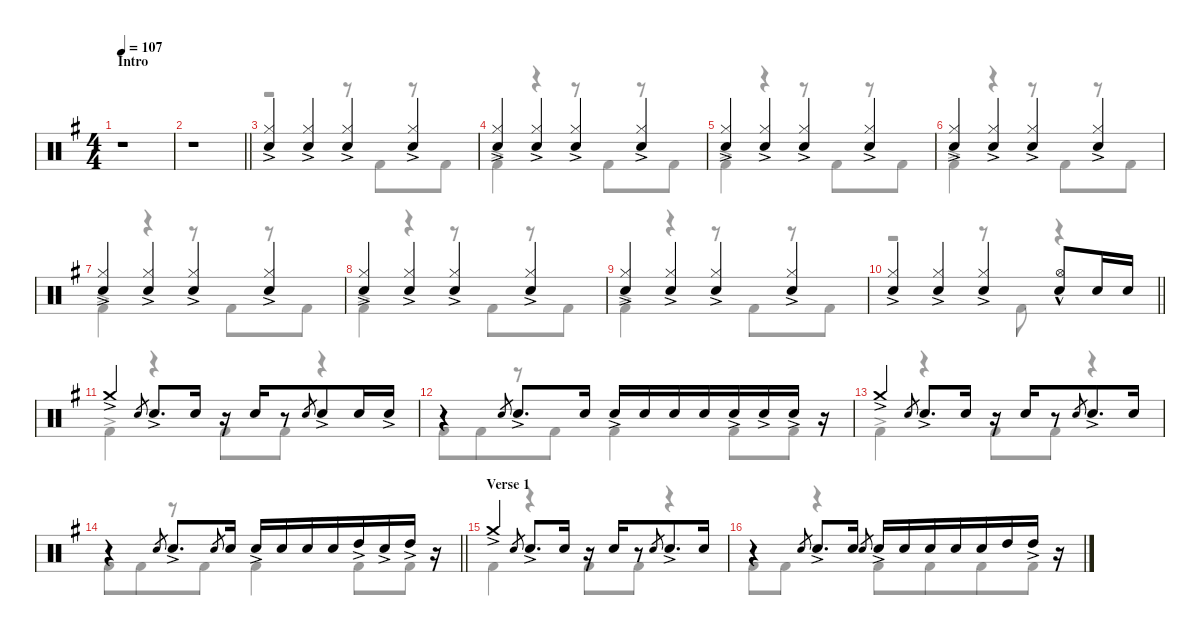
\defaultSystemsLayout 4
\hideDynamics
\bracketExtendMode nobrackets
\singleTrackTrackNamePolicy hidden
\multiTrackTrackNamePolicy hidden
\firstSystemTrackNameMode fullname
\firstSystemTrackNameOrientation horizontal
\otherSystemsTrackNameOrientation horizontal
\track ("Drums: Mitch Mitchell" "drm.") {defaultSystemsLayout 4 instrument percussion}
\staff {score}
\articulation defaults
\voice
\ts (4 4)
\beaming (8 4 4)
\section ("" "Intro")
\tempo 107
\clef neutral
\ks g
r.1{dy mf beam Down} |
\barLineRight lightlight
r.1{beam Down} |
("Hi-Hat (closed)"{ac acc forcenatural} "Snare (hit) 2"{ac acc forcenatural}).4{beam Up} ("Hi-Hat (closed)"{ac acc forcenatural} "Snare (hit) 2"{ac acc forcenatural}).4{beam Up} ("Hi-Hat (closed)"{ac acc forcenatural} "Snare (hit) 2"{ac acc forcenatural}).4{beam Up} ("Hi-Hat (closed)"{ac acc forcenatural} "Snare (hit) 2"{ac acc forcenatural}).4{beam Up} |
("Hi-Hat (closed)"{ac acc forcenatural} "Snare (hit) 2"{ac acc forcenatural}).4{beam Up} ("Hi-Hat (closed)"{ac acc forcenatural} "Snare (hit) 2"{ac acc forcenatural}).4{beam Up} ("Hi-Hat (closed)"{ac acc forcenatural} "Snare (hit) 2"{ac acc forcenatural}).4{beam Up} ("Hi-Hat (closed)"{ac acc forcenatural} "Snare (hit) 2"{ac acc forcenatural}).4{beam Up} |
("Hi-Hat (closed)"{ac acc forcenatural} "Snare (hit) 2"{ac acc forcenatural}).4{beam Up} ("Hi-Hat (closed)"{ac acc forcenatural} "Snare (hit) 2"{ac acc forcenatural}).4{beam Up} ("Hi-Hat (closed)"{ac acc forcenatural} "Snare (hit) 2"{ac acc forcenatural}).4{beam Up} ("Hi-Hat (closed)"{ac acc forcenatural} "Snare (hit) 2"{ac acc forcenatural}).4{beam Up} |
("Hi-Hat (closed)"{ac acc forcenatural} "Snare (hit) 2"{ac acc forcenatural}).4{beam Up} ("Hi-Hat (closed)"{ac acc forcenatural} "Snare (hit) 2"{ac acc forcenatural}).4{beam Up} ("Hi-Hat (closed)"{ac acc forcenatural} "Snare (hit) 2"{ac acc forcenatural}).4{beam Up} ("Hi-Hat (closed)"{ac acc forcenatural} "Snare (hit) 2"{ac acc forcenatural}).4{beam Up} |
("Hi-Hat (closed)"{ac acc forcenatural} "Snare (hit) 2"{ac acc forcenatural}).4{beam Up} ("Hi-Hat (closed)"{ac acc forcenatural} "Snare (hit) 2"{ac acc forcenatural}).4{beam Up} ("Hi-Hat (closed)"{ac acc forcenatural} "Snare (hit) 2"{ac acc forcenatural}).4{beam Up} ("Hi-Hat (closed)"{ac acc forcenatural} "Snare (hit) 2"{ac acc forcenatural}).4{beam Up} |
("Hi-Hat (closed)"{ac acc forcenatural} "Snare (hit) 2"{ac acc forcenatural}).4{beam Up} ("Hi-Hat (closed)"{ac acc forcenatural} "Snare (hit) 2"{ac acc forcenatural}).4{beam Up} ("Hi-Hat (closed)"{ac acc forcenatural} "Snare (hit) 2"{ac acc forcenatural}).4{beam Up} ("Hi-Hat (closed)"{ac acc forcenatural} "Snare (hit) 2"{ac acc forcenatural}).4{beam Up} |
("Hi-Hat (closed)"{ac acc forcenatural} "Snare (hit) 2"{ac acc forcenatural}).4{beam Up} ("Hi-Hat (closed)"{ac acc forcenatural} "Snare (hit) 2"{ac acc forcenatural}).4{beam Up} ("Hi-Hat (closed)"{ac acc forcenatural} "Snare (hit) 2"{ac acc forcenatural}).4{beam Up} ("Hi-Hat (closed)"{ac acc forcenatural} "Snare (hit) 2"{ac acc forcenatural}).4{beam Up} |
\barLineRight lightlight
("Hi-Hat (closed)"{ac acc forcenatural} "Snare (hit) 2"{ac acc forcenatural}).4{beam Up} ("Hi-Hat (closed)"{ac acc forcenatural} "Snare (hit) 2"{ac acc forcenatural}).4{beam Up} ("Hi-Hat (closed)"{ac acc forcenatural} "Snare (hit) 2"{ac acc forcenatural}).4{beam Up} ("Hi-Hat (open)"{hac acc forcenatural} "Snare (hit) 2"{acc forcenatural}).8{beam Up} "Snare (hit) 2"{acc forcenatural}.16{beam Up} "Snare (hit) 2"{acc forcenatural}.16{beam Up} |
"Crash medium (hit)"{ac acc forcenatural}.4{beam Up} "Snare (hit) 2"{acc forcenatural}.8{gr dy mp beam Up} "Snare (hit) 2"{ac acc forcenatural}.8{d dy mf beam Up} "Snare (hit) 2"{acc forcenatural}.16{beam Up} r.16{beam Up} "Snare (hit) 2"{acc forcenatural}.16{beam Up} r.8{beam Up} "Snare (hit) 2"{acc forcenatural}.8{gr dy mp beam Up} "Snare (hit) 2"{ac acc forcenatural}.8{dy mf beam Up} "Snare (hit) 2"{acc forcenatural}.16{beam Up} "Snare (hit) 2"{ac acc forcenatural}.16{beam Up} |
r.4{beam Up} "Snare (hit) 2"{acc forcenatural}.8{gr dy mp beam Up} "Snare (hit) 2"{ac acc forcenatural}.8{d dy mf beam Up} "Snare (hit) 2"{acc forcenatural}.16{beam Up} "Snare (hit) 2"{ac acc forcenatural}.16{beam Up} "Snare (hit) 2"{acc forcenatural}.16{beam Up} "Snare (hit) 2"{acc forcenatural}.16{beam Up} "Snare (hit) 2"{acc forcenatural}.16{beam Up} "Snare (hit) 2"{ac acc forcenatural}.16{beam Up} "Snare (hit) 2"{ac acc forcenatural}.16{beam Up} "Snare (hit) 2"{ac acc forcenatural}.16{beam Up} r.16{beam Up} |
"Crash medium (hit)"{ac acc forcenatural}.4{beam Up} "Snare (hit) 2"{acc forcenatural}.8{gr beam Up} "Snare (hit) 2"{ac acc forcenatural}.8{d beam Up} "Snare (hit) 2"{acc forcenatural}.16{beam Up} r.16{beam Up} "Snare (hit) 2"{acc forcenatural}.16{beam Up} r.8{beam Up} "Snare (hit) 2"{acc forcenatural}.8{gr beam Up} "Snare (hit) 2"{ac acc forcenatural}.8{d beam Up} "Snare (hit) 2"{acc forcenatural}.16{beam Up} |
\barLineRight lightlight
r.4{beam Up} "Snare (hit) 2"{acc forcenatural}.8{gr beam Up} "Snare (hit) 2"{ac acc forcenatural}.8{d beam Up} "Snare (hit) 2"{acc forcenatural}.8{gr dy mp beam Up} "Snare (hit) 2"{acc forcenatural}.16{dy mf beam Up} "Snare (hit) 2"{ac acc forcenatural}.16{beam Up} "Snare (hit) 2"{acc forcenatural}.16{beam Up} "Snare (hit) 2"{acc forcenatural}.16{beam Up} "Snare (hit) 2"{acc forcenatural}.16{beam Up} "High Tom (hit)"{ac acc forcenatural}.16{beam Up} "Snare (hit) 2"{ac acc forcenatural}.16{beam Up} "High Tom (hit)"{ac acc forcenatural}.16{beam Up} r.16{beam Up} |
\section ("" "Verse 1")
"Crash medium (hit)"{ac acc forcenatural}.4{beam Up} "Snare (hit) 2"{acc forcenatural}.8{gr dy mp beam Up} "Snare (hit) 2"{ac acc forcenatural}.8{d dy mf beam Up} "Snare (hit) 2"{acc forcenatural}.16{beam Up} r.16{beam Up} "Snare (hit) 2"{acc forcenatural}.16{beam Up} r.8{beam Up} "Snare (hit) 2"{acc forcenatural}.8{gr dy mp beam Up} "Snare (hit) 2"{ac acc forcenatural}.8{d dy mf beam Up} "Snare (hit) 2"{acc forcenatural}.16{beam Up} |
r.4{beam Up} "Snare (hit) 2"{acc forcenatural}.8{gr dy mp beam Up} "Snare (hit) 2"{ac acc forcenatural}.8{d dy mf beam Up} "Snare (hit) 2"{acc forcenatural}.16{beam Up} "Snare (hit) 2"{acc forcenatural}.8{gr dy mp beam Up} "Snare (hit) 2"{ac acc forcenatural}.16{dy mf beam Up} "Snare (hit) 2"{acc forcenatural}.16{beam Up} "Snare (hit) 2"{acc forcenatural}.16{beam Up} "Snare (hit) 2"{acc forcenatural}.16{beam Up} "Snare (hit) 2"{acc forcenatural}.16{beam Up} "High Tom (hit)"{acc forcenatural}.16{beam Up} "High Tom (hit)"{ac acc forcenatural}.16{beam Up} r.16{beam Up}
\voice
\clef neutral
\ottava regular
\simile none
\ks g
|
\barLineRight lightlight
|
r.2{beam Down} r.8{beam Down} "Kick (hit) 2"{acc forcenatural}.8{beam Down} r.8{beam Down} "Kick (hit) 2"{acc forcenatural}.8{beam Down} |
"Kick (hit) 2"{ac acc forcenatural}.4{beam Down} r.4{beam Down} r.8{beam Down} "Kick (hit) 2"{acc forcenatural}.8{beam Down} r.8{beam Down} "Kick (hit) 2"{acc forcenatural}.8{beam Down} |
"Kick (hit) 2"{ac acc forcenatural}.4{beam Down} r.4{beam Down} r.8{beam Down} "Kick (hit) 2"{acc forcenatural}.8{beam Down} r.8{beam Down} "Kick (hit) 2"{acc forcenatural}.8{beam Down} |
"Kick (hit) 2"{ac acc forcenatural}.4{beam Down} r.4{beam Down} r.8{beam Down} "Kick (hit) 2"{acc forcenatural}.8{beam Down} r.8{beam Down} "Kick (hit) 2"{acc forcenatural}.8{beam Down} |
"Kick (hit) 2"{ac acc forcenatural}.4{beam Down} r.4{beam Down} r.8{beam Down} "Kick (hit) 2"{acc forcenatural}.8{beam Down} r.8{beam Down} "Kick (hit) 2"{acc forcenatural}.8{beam Down} |
"Kick (hit) 2"{ac acc forcenatural}.4{beam Down} r.4{beam Down} r.8{beam Down} "Kick (hit) 2"{acc forcenatural}.8{beam Down} r.8{beam Down} "Kick (hit) 2"{acc forcenatural}.8{beam Down} |
"Kick (hit) 2"{ac acc forcenatural}.4{beam Down} r.4{beam Down} r.8{beam Down} "Kick (hit) 2"{acc forcenatural}.8{beam Down} r.8{beam Down} "Kick (hit) 2"{acc forcenatural}.8{beam Down} |
\barLineRight lightlight
r.2{beam Down} r.8{beam Down} "Kick (hit) 2"{acc forcenatural}.8{beam Down} r.4{beam Down} |
"Kick (hit) 2"{ac acc forcenatural}.4{beam Down} r.4{beam Down} "Kick (hit) 2"{acc forcenatural}.8{beam Down} "Kick (hit) 2"{acc forcenatural}.8{beam Down} r.4{beam Down} |
"Kick (hit) 2"{acc forcenatural}.8{beam Down} "Kick (hit) 2"{acc forcenatural}.8{beam Down} r.8{beam Down} "Kick (hit) 2"{acc forcenatural}.8{beam Down} "Kick (hit) 2"{acc forcenatural}.4{beam Down} "Kick (hit) 2"{acc forcenatural}.8{beam Down} "Kick (hit) 2"{acc forcenatural}.8{beam Down} |
"Kick (hit) 2"{ac acc forcenatural}.4{beam Down} r.4{beam Down} "Kick (hit) 2"{acc forcenatural}.8{beam Down} "Kick (hit) 2"{acc forcenatural}.8{beam Down} r.4{beam Down} |
\barLineRight lightlight "Kick (hit) 2"{acc forcenatural}.8{beam Down} "Kick (hit) 2"{acc forcenatural}.8{beam Down}
r.8{beam Down} "Kick (hit) 2"{acc forcenatural}.8{beam Down} "Kick (hit) 2"{acc forcenatural}.4{beam Down} "Kick (hit) 2"{acc forcenatural}.8{beam Down} "Kick (hit) 2"{acc forcenatural}.8{beam Down} |
"Kick (hit) 2"{acc forcenatural}.4{beam Down} r.4{beam Down} "Kick (hit) 2"{acc forcenatural}.8{beam Down} "Kick (hit) 2"{acc forcenatural}.8{beam Down} r.4{beam Down} |
"Kick (hit) 2"{acc forcenatural}.8{beam Down} "Kick (hit) 2"{acc forcenatural}.8{beam Down} r.4{beam Down} "Kick (hit) 2"{acc forcenatural}.8{beam Down} "Kick (hit) 2"{acc forcenatural}.8{beam Down} "Kick (hit) 2"{acc forcenatural}.8{beam Down} "Kick (hit) 2"{acc forcenatural}.8{beam Down}
